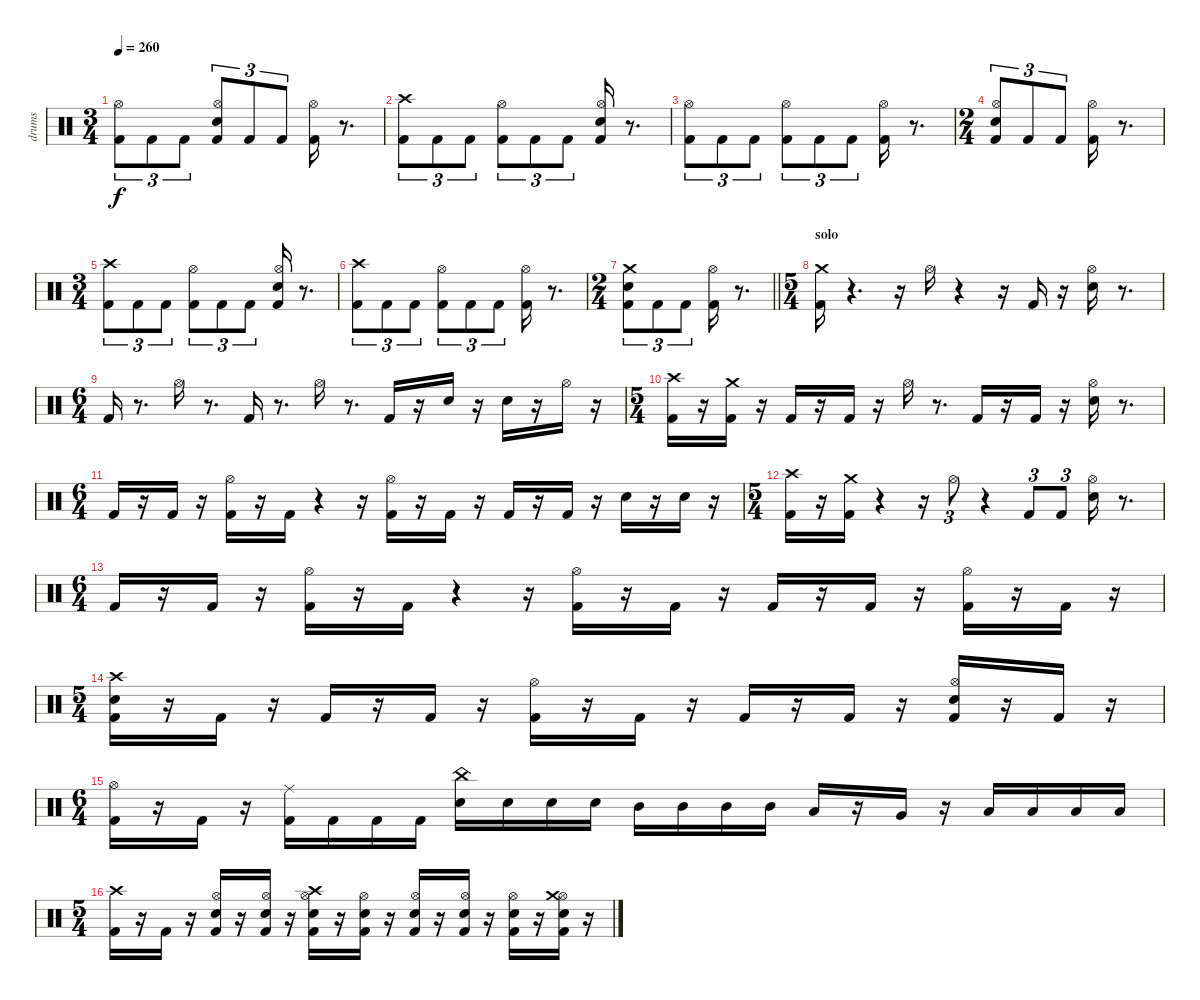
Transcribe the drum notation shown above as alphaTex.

\track ("drums" "drums") {instrument percussion}
\staff {score}
\articulation defaults
\ts (3 4)
\tempo 260
\clef neutral
\ks c
("Kick (hit) 2" "Hi-Hat (open)").8{tu (3 2) dy f} "Kick (hit) 2".8{tu (3 2)} "Kick (hit) 2".8{tu (3 2)} ("Kick (hit) 2" "Snare (hit) 2" "Hi-Hat (open)").8{tu (3 2)} "Kick (hit) 2".8{tu (3 2)} "Kick (hit) 2".8{tu (3 2)} ("Kick (hit) 2" "Hi-Hat (open)").16 r.8{d} |
("Kick (hit) 2" "Crash high (hit)").8{tu (3 2)} "Kick (hit) 2".8{tu (3 2)} "Kick (hit) 2".8{tu (3 2)} ("Kick (hit) 2" "Hi-Hat (open)").8{tu (3 2)} "Kick (hit) 2".8{tu (3 2)} "Kick (hit) 2".8{tu (3 2)} ("Kick (hit) 2" "Snare (hit) 2" "Hi-Hat (open)").16 r.8{d} |
("Kick (hit) 2" "Hi-Hat (open)").8{tu (3 2)} "Kick (hit) 2".8{tu (3 2)} "Kick (hit) 2".8{tu (3 2)} ("Kick (hit) 2" "Hi-Hat (open)").8{tu (3 2)} "Kick (hit) 2".8{tu (3 2)} "Kick (hit) 2".8{tu (3 2)} ("Kick (hit) 2" "Hi-Hat (open)").16 r.8{d} |
\ts (2 4)
("Kick (hit) 2" "Snare (hit) 2" "Hi-Hat (open)").8{tu (3 2)} "Kick (hit) 2".8{tu (3 2)} "Kick (hit) 2".8{tu (3 2)} ("Kick (hit) 2" "Hi-Hat (open)").16 r.8{d} |
\ts (3 4)
("Kick (hit) 2" "Crash high (hit)").8{tu (3 2)} "Kick (hit) 2".8{tu (3 2)} "Kick (hit) 2".8{tu (3 2)} ("Kick (hit) 2" "Hi-Hat (open)").8{tu (3 2)} "Kick (hit) 2".8{tu (3 2)} "Kick (hit) 2".8{tu (3 2)} ("Kick (hit) 2" "Snare (hit) 2" "Hi-Hat (open)").16 r.8{d} |
("Kick (hit) 2" "Crash high (hit)").8{tu (3 2)} "Kick (hit) 2".8{tu (3 2)} "Kick (hit) 2".8{tu (3 2)} ("Kick (hit) 2" "Hi-Hat (open)").8{tu (3 2)} "Kick (hit) 2".8{tu (3 2)} "Kick (hit) 2".8{tu (3 2)} ("Kick (hit) 2" "Hi-Hat (open)").16 r.8{d} |
\ts (2 4)
\barLineRight lightlight
("Kick (hit) 2" "Snare (hit) 2" "Crash medium (hit)").8{tu (3 2)} "Kick (hit) 2".8{tu (3 2)} "Kick (hit) 2".8{tu (3 2)} ("Kick (hit) 2" "Hi-Hat (open)").16 r.8{d} |
\ts (5 4)
\section ("" "solo")
("Kick (hit) 2" "Crash medium (hit)").16 r.4{d} r.16 "Hi-Hat (open)".16 r.4 r.16 "Kick (hit) 2".16 r.16 ("Snare (hit) 2" "Hi-Hat (open)").16 r.8{d} |
\ts (6 4)
"Kick (hit) 2".16 r.8{d} "Hi-Hat (open)".16 r.8{d} "Kick (hit) 2".16 r.8{d} "Hi-Hat (open)".16 r.8{d} "Kick (hit) 2".16 r.16 "Snare (hit) 2".16 r.16 "Snare (hit) 2".16 r.16 "Hi-Hat (open)".16 r.16 |
\ts (5 4)
("Kick (hit) 2" "Crash high (hit)").16 r.16 ("Kick (hit) 2" "Crash medium (hit)").16 r.16 "Kick (hit) 2".16 r.16 "Kick (hit) 2".16 r.16 "Hi-Hat (open)".16 r.8{d} "Kick (hit) 2".16 r.16 "Kick (hit) 2".16 r.16 ("Snare (hit) 2" "Hi-Hat (open)").16 r.8{d} |
\ts (6 4)
"Kick (hit) 2".16 r.16 "Kick (hit) 2".16 r.16 ("Kick (hit) 2" "Hi-Hat (open)").16 r.16 "Kick (hit) 2".16 r.4 r.16 ("Kick (hit) 2" "Hi-Hat (open)").16 r.16 "Kick (hit) 2".16 r.16 "Kick (hit) 2".16 r.16 "Kick (hit) 2".16 r.16 "Snare (hit) 2".16 r.16 "Snare (hit) 2".16 r.16 |
\ts (5 4)
("Kick (hit) 2" "Crash high (hit)").16 r.16 ("Kick (hit) 2" "Crash medium (hit)").16 r.4 r.16 "Hi-Hat (open)".8{tu (3 2)} r.4 "Kick (hit) 2".8{tu (3 2)} "Kick (hit) 2".8{tu (3 2)} ("Snare (hit) 2" "Hi-Hat (open)").16 r.8{d} |
\ts (6 4)
"Kick (hit) 2".16 r.16 "Kick (hit) 2".16 r.16 ("Kick (hit) 2" "Hi-Hat (open)").16 r.16 "Kick (hit) 2".16 r.4 r.16 ("Kick (hit) 2" "Hi-Hat (open)").16 r.16 "Kick (hit) 2".16 r.16 "Kick (hit) 2".16 r.16 "Kick (hit) 2".16 r.16 ("Kick (hit) 2" "Hi-Hat (open)").16 r.16 "Kick (hit) 2".16 r.16 |
\ts (5 4)
("Kick (hit) 2" "Snare (hit) 2" "Crash high (hit)").16 r.16 "Kick (hit) 2".16 r.16 "Kick (hit) 2".16 r.16 "Kick (hit) 2".16 r.16 ("Kick (hit) 2" "Hi-Hat (open)").16 r.16 "Kick (hit) 2".16 r.16 "Kick (hit) 2".16 r.16 "Kick (hit) 2".16 r.16 ("Kick (hit) 2" "Snare (hit) 2" "Hi-Hat (open)").16 r.16 "Kick (hit) 2".16 r.16 |
\ts (6 4)
("Kick (hit) 2" "Hi-Hat (open)").16 r.16 "Kick (hit) 2".16 r.16 ("Kick (hit) 2" "Ride (middle)").16 "Kick (hit) 2".16 "Kick (hit) 2".16 "Kick (hit) 2".16 ("Snare (hit) 2" "China (hit)").16 "Snare (hit) 2".16 "Snare (hit) 2".16 "Snare (hit) 2".16 "Mid Tom (hit)".16 "Mid Tom (hit)".16 "Mid Tom (hit)".16 "Mid Tom (hit)".16 "Low Tom (hit)".16 r.16 "Very Low Tom (hit)".16 r.16 "Low Floor Tom (hit)".16 "Low Floor Tom (hit)".16 "Low Floor Tom (hit)".16 "Low Floor Tom (hit)".16 |
\ts (5 4)
("Kick (hit) 2" "Crash high (hit)").16 r.16 "Kick (hit) 2".16 r.16 ("Kick (hit) 2" "Snare (hit) 2" "Hi-Hat (open)").16 r.16 ("Kick (hit) 2" "Snare (hit) 2" "Hi-Hat (open)").16 r.16 ("Kick (hit) 2" "Snare (hit) 2" "Hi-Hat (open)" "Crash high (hit)").16 r.16 ("Kick (hit) 2" "Snare (hit) 2" "Hi-Hat (open)").16 r.16 ("Kick (hit) 2" "Snare (hit) 2" "Hi-Hat (open)").16 r.16 ("Kick (hit) 2" "Snare (hit) 2" "Hi-Hat (open)").16 r.16 ("Kick (hit) 2" "Snare (hit) 2" "Hi-Hat (open)").16 r.16 ("Kick (hit) 2" "Snare (hit) 2" "Hi-Hat (open)" "Crash medium (hit)").16 r.16
